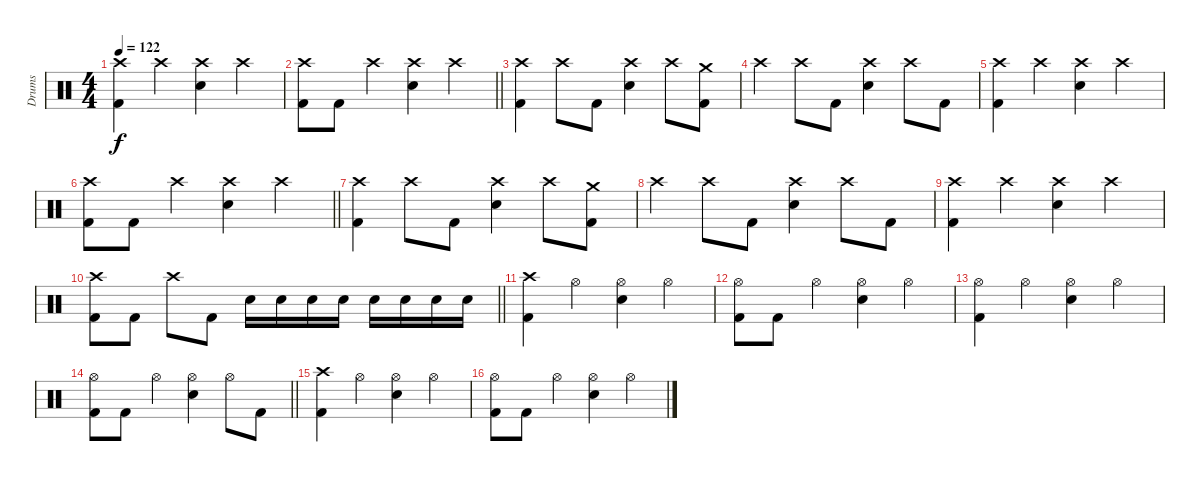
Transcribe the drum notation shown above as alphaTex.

\track ("Drums" "Drums") {instrument percussion}
\staff {score}
\articulation defaults
\ts (4 4)
\tempo 122
\clef neutral
\ks c
("Crash high (hit)" "Kick (hit) 2").4{dy f} "Crash high (hit)".4 ("Crash high (hit)" "Electric Snare (hit)").4 "Crash high (hit)".4 |
\barLineRight lightlight
("Crash high (hit)" "Kick (hit) 2").8 "Kick (hit) 2".8 "Crash high (hit)".4 ("Crash high (hit)" "Electric Snare (hit)").4 "Crash high (hit)".4 |
("Crash high (hit)" "Kick (hit) 2").4 "Crash high (hit)".8 "Kick (hit) 2".8 ("Crash high (hit)" "Electric Snare (hit)").4 "Crash high (hit)".8 ("Crash medium (hit)" "Kick (hit) 2").8 |
"Crash high (hit)".4 "Crash high (hit)".8 "Kick (hit) 2".8 ("Crash high (hit)" "Electric Snare (hit)").4 "Crash high (hit)".8 "Kick (hit) 2".8 |
("Crash high (hit)" "Kick (hit) 2").4 "Crash high (hit)".4 ("Crash high (hit)" "Electric Snare (hit)").4 "Crash high (hit)".4 |
\barLineRight lightlight
("Crash high (hit)" "Kick (hit) 2").8 "Kick (hit) 2".8 "Crash high (hit)".4 ("Crash high (hit)" "Electric Snare (hit)").4 "Crash high (hit)".4 |
("Crash high (hit)" "Kick (hit) 2").4 "Crash high (hit)".8 "Kick (hit) 2".8 ("Crash high (hit)" "Electric Snare (hit)").4 "Crash high (hit)".8 ("Crash medium (hit)" "Kick (hit) 2").8 |
"Crash high (hit)".4 "Crash high (hit)".8 "Kick (hit) 2".8 ("Crash high (hit)" "Electric Snare (hit)").4 "Crash high (hit)".8 "Kick (hit) 2".8 |
("Crash high (hit)" "Kick (hit) 2").4 "Crash high (hit)".4 ("Crash high (hit)" "Electric Snare (hit)").4 "Crash high (hit)".4 |
\barLineRight lightlight
("Crash high (hit)" "Kick (hit) 2").8 "Kick (hit) 2".8 "Crash high (hit)".8 "Kick (hit) 2".8 "Electric Snare (hit)".16 "Electric Snare (hit)".16 "Electric Snare (hit)".16 "Electric Snare (hit)".16 "Electric Snare (hit)".16 "Electric Snare (hit)".16 "Electric Snare (hit)".16 "Electric Snare (hit)".16 |
("Crash high (hit)" "Kick (hit) 2").4 "Hi-Hat (open)".4 ("Hi-Hat (open)" "Electric Snare (hit)").4 "Hi-Hat (open)".4 |
("Hi-Hat (open)" "Kick (hit) 2").8 "Kick (hit) 2".8 "Hi-Hat (open)".4 ("Hi-Hat (open)" "Electric Snare (hit)").4 "Hi-Hat (open)".4 |
("Hi-Hat (open)" "Kick (hit) 2").4 "Hi-Hat (open)".4 ("Hi-Hat (open)" "Electric Snare (hit)").4 "Hi-Hat (open)".4 |
\barLineRight lightlight
("Hi-Hat (open)" "Kick (hit) 2").8 "Kick (hit) 2".8 "Hi-Hat (open)".4 ("Hi-Hat (open)" "Electric Snare (hit)").4 "Hi-Hat (open)".8 "Kick (hit) 2".8 |
("Crash high (hit)" "Kick (hit) 2").4 "Hi-Hat (open)".4 ("Hi-Hat (open)" "Electric Snare (hit)").4 "Hi-Hat (open)".4 |
("Hi-Hat (open)" "Kick (hit) 2").8 "Kick (hit) 2".8 "Hi-Hat (open)".4 ("Hi-Hat (open)" "Electric Snare (hit)").4 "Hi-Hat (open)".4
